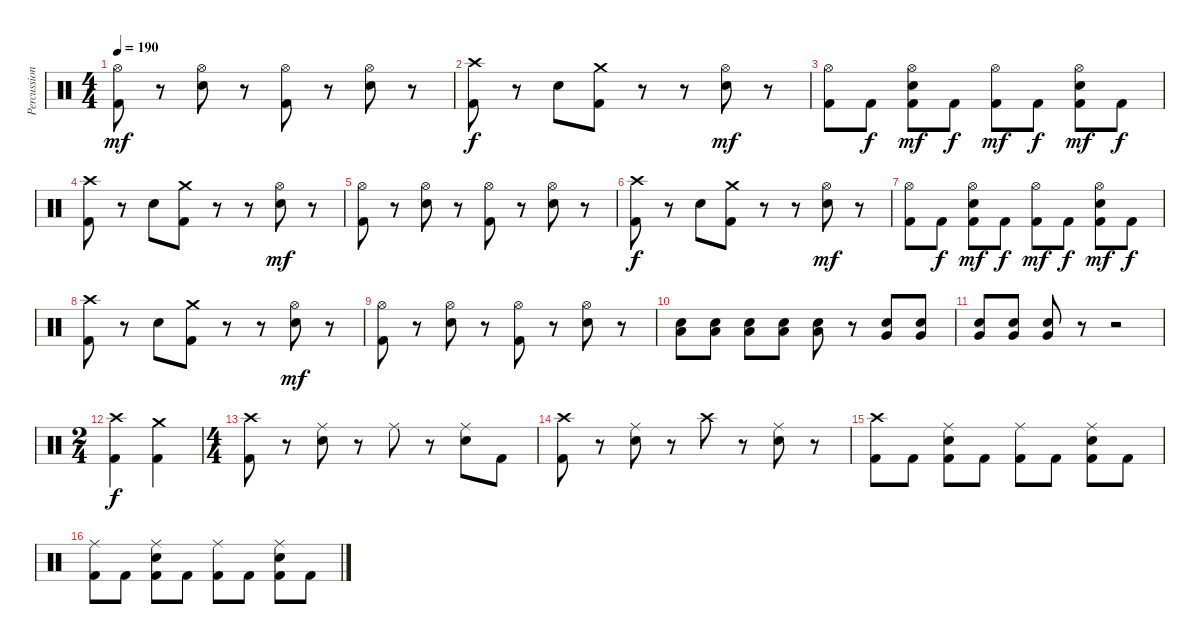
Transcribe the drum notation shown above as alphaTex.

\track ("Percussion" "Percussion") {instrument percussion}
\staff {score}
\articulation defaults
\ts (4 4)
\tempo 190
\clef neutral
\ks c
("Hi-Hat (open)" "Kick (hit) 2").8{dy mf} r.8 ("Hi-Hat (open)" "Snare (hit) 2").8 r.8 ("Hi-Hat (open)" "Kick (hit) 2").8 r.8 ("Hi-Hat (open)" "Snare (hit) 2").8 r.8 |
("Crash high (hit)" "Kick (hit) 2").8{dy f} r.8 "Snare (hit) 2".8 ("Crash medium (hit)" "Kick (hit) 2").8 r.8 r.8 ("Hi-Hat (open)" "Snare (hit) 2").8{dy mf} r.8 |
("Hi-Hat (open)" "Kick (hit) 2").8 "Kick (hit) 2".8{dy f} ("Hi-Hat (open)" "Snare (hit) 2" "Kick (hit) 2").8{dy mf} "Kick (hit) 2".8{dy f} ("Hi-Hat (open)" "Kick (hit) 2").8{dy mf} "Kick (hit) 2".8{dy f} ("Hi-Hat (open)" "Snare (hit) 2" "Kick (hit) 2").8{dy mf} "Kick (hit) 2".8{dy f} |
("Crash high (hit)" "Kick (hit) 2").8 r.8 "Snare (hit) 2".8 ("Crash medium (hit)" "Kick (hit) 2").8 r.8 r.8 ("Hi-Hat (open)" "Snare (hit) 2").8{dy mf} r.8 |
("Hi-Hat (open)" "Kick (hit) 2").8 r.8 ("Hi-Hat (open)" "Snare (hit) 2").8 r.8 ("Hi-Hat (open)" "Kick (hit) 2").8 r.8 ("Hi-Hat (open)" "Snare (hit) 2").8 r.8 |
("Crash high (hit)" "Kick (hit) 2").8{dy f} r.8 "Snare (hit) 2".8 ("Crash medium (hit)" "Kick (hit) 2").8 r.8 r.8 ("Hi-Hat (open)" "Snare (hit) 2").8{dy mf} r.8 |
("Hi-Hat (open)" "Kick (hit) 2").8 "Kick (hit) 2".8{dy f} ("Hi-Hat (open)" "Snare (hit) 2" "Kick (hit) 2").8{dy mf} "Kick (hit) 2".8{dy f} ("Hi-Hat (open)" "Kick (hit) 2").8{dy mf} "Kick (hit) 2".8{dy f} ("Hi-Hat (open)" "Snare (hit) 2" "Kick (hit) 2").8{dy mf} "Kick (hit) 2".8{dy f} |
("Crash high (hit)" "Kick (hit) 2").8 r.8 "Snare (hit) 2".8 ("Crash medium (hit)" "Kick (hit) 2").8 r.8 r.8 ("Hi-Hat (open)" "Snare (hit) 2").8{dy mf} r.8 |
("Hi-Hat (open)" "Kick (hit) 2").8 r.8 ("Hi-Hat (open)" "Snare (hit) 2").8 r.8 ("Hi-Hat (open)" "Kick (hit) 2").8 r.8 ("Hi-Hat (open)" "Snare (hit) 2").8 r.8 |
("Snare (hit) 2" "Low Tom (hit)").8 ("Snare (hit) 2" "Low Tom (hit)").8 ("Snare (hit) 2" "Low Tom (hit)").8 ("Snare (hit) 2" "Low Tom (hit)").8 ("Snare (hit) 2" "Low Tom (hit)").8 r.8 ("Snare (hit) 2" "Very Low Tom (hit)").8 ("Snare (hit) 2" "Very Low Tom (hit)").8 |
("Snare (hit) 2" "Very Low Tom (hit)").8 ("Snare (hit) 2" "Very Low Tom (hit)").8 ("Snare (hit) 2" "Very Low Tom (hit)").8 r.8 r.2 |
\ts (2 4)
("Crash high (hit)" "Kick (hit) 2").4{dy f} ("Crash medium (hit)" "Kick (hit) 2").4 |
\ts (4 4)
("Crash high (hit)" "Kick (hit) 2").8 r.8 ("Ride (middle)" "Snare (hit) 2").8 r.8 "Ride (middle)".8 r.8 ("Ride (middle)" "Snare (hit) 2").8 "Kick (hit) 2".8 |
("Crash high (hit)" "Kick (hit) 2").8 r.8 ("Ride (middle)" "Snare (hit) 2").8 r.8 "Crash high (hit)".8 r.8 ("Ride (middle)" "Snare (hit) 2").8 r.8 |
("Crash high (hit)" "Kick (hit) 2").8 "Kick (hit) 2".8 ("Ride (middle)" "Snare (hit) 2" "Kick (hit) 2").8 "Kick (hit) 2".8 ("Ride (middle)" "Kick (hit) 2").8 "Kick (hit) 2".8 ("Ride (middle)" "Snare (hit) 2" "Kick (hit) 2").8 "Kick (hit) 2".8 |
("Ride (middle)" "Kick (hit) 2").8 "Kick (hit) 2".8 ("Ride (middle)" "Snare (hit) 2" "Kick (hit) 2").8 "Kick (hit) 2".8 ("Ride (middle)" "Kick (hit) 2").8 "Kick (hit) 2".8 ("Ride (middle)" "Snare (hit) 2" "Kick (hit) 2").8 "Kick (hit) 2".8
